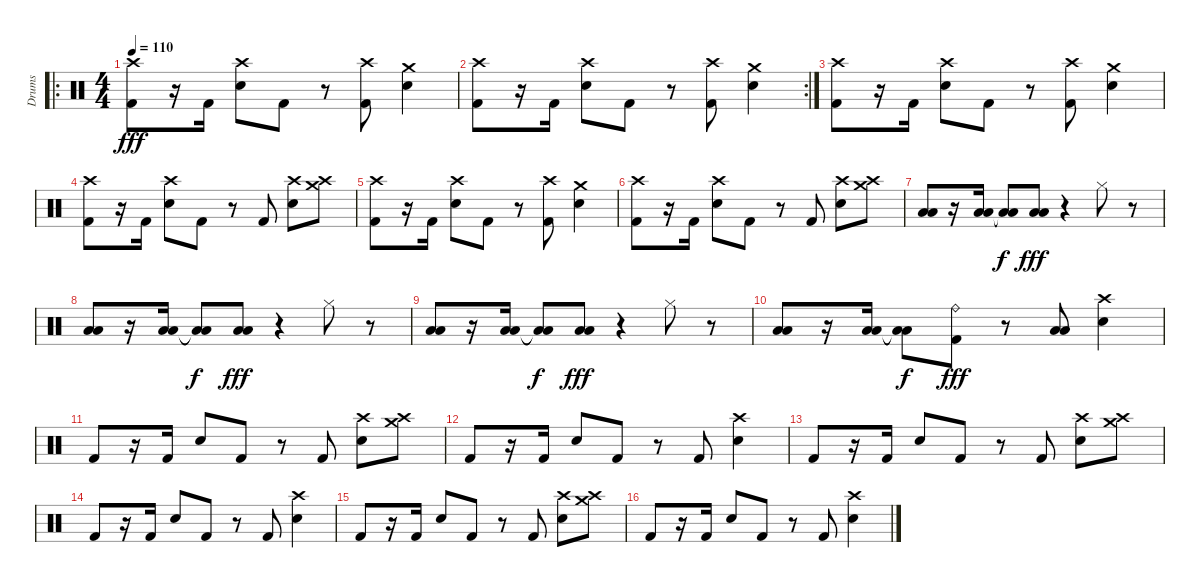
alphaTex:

\track ("Drums" "Drums") {instrument percussion}
\staff {score}
\articulation defaults
\ro
\ts (4 4)
\tempo 110
\clef neutral
\ks c
("Crash high (hit)" "Kick (hit) 2").8{dy fff} r.16 "Kick (hit) 2".16 ("Crash high (hit)" "Electric Snare (hit)").8 "Kick (hit) 2".8 r.8 ("Crash high (hit)" "Kick (hit) 2").8 ("Crash medium (hit)" "Electric Snare (hit)").4 |
\rc 2
("Crash high (hit)" "Kick (hit) 2").8 r.16 "Kick (hit) 2".16 ("Crash high (hit)" "Electric Snare (hit)").8 "Kick (hit) 2".8 r.8 ("Crash high (hit)" "Kick (hit) 2").8 ("Crash medium (hit)" "Electric Snare (hit)").4 |
("Crash high (hit)" "Kick (hit) 2").8 r.16 "Kick (hit) 2".16 ("Crash high (hit)" "Electric Snare (hit)").8 "Kick (hit) 2".8 r.8 ("Crash high (hit)" "Kick (hit) 2").8 ("Crash medium (hit)" "Electric Snare (hit)").4 |
("Crash high (hit)" "Kick (hit) 2").8 r.16 "Kick (hit) 2".16 ("Crash high (hit)" "Electric Snare (hit)").8 "Kick (hit) 2".8 r.8 "Kick (hit) 2".8 ("Crash high (hit)" "Electric Snare (hit)").8 ("Crash high (hit)" "Crash medium (hit)").8 |
("Crash high (hit)" "Kick (hit) 2").8 r.16 "Kick (hit) 2".16 ("Crash high (hit)" "Electric Snare (hit)").8 "Kick (hit) 2".8 r.8 ("Crash high (hit)" "Kick (hit) 2").8 ("Crash medium (hit)" "Electric Snare (hit)").4 |
("Crash high (hit)" "Kick (hit) 2").8 r.16 "Kick (hit) 2".16 ("Crash high (hit)" "Electric Snare (hit)").8 "Kick (hit) 2".8 r.8 "Kick (hit) 2".8 ("Crash high (hit)" "Electric Snare (hit)").8 ("Crash high (hit)" "Crash medium (hit)").8 |
("Low Tom (hit)" "Low Floor Tom (hit)").8 r.16 ("Low Tom (hit)" "Low Floor Tom (hit)").16 ("Low Tom (hit)"{t} "Low Floor Tom (hit)"{t}).8{dy f} ("Low Tom (hit)" "Low Floor Tom (hit)").8{dy fff} r.4 "Hi-Hat (closed)".8 r.8 |
("Low Tom (hit)" "Low Floor Tom (hit)").8 r.16 ("Low Tom (hit)" "Low Floor Tom (hit)").16 ("Low Tom (hit)"{t} "Low Floor Tom (hit)"{t}).8{dy f} ("Low Tom (hit)" "Low Floor Tom (hit)").8{dy fff} r.4 "Hi-Hat (closed)".8 r.8 |
("Low Tom (hit)" "Low Floor Tom (hit)").8 r.16 ("Low Tom (hit)" "Low Floor Tom (hit)").16 ("Low Tom (hit)"{t} "Low Floor Tom (hit)"{t}).8{dy f} ("Low Tom (hit)" "Low Floor Tom (hit)").8{dy fff} r.4 "Hi-Hat (closed)".8 r.8 |
("Low Tom (hit)" "Low Floor Tom (hit)").8 r.16 ("Low Tom (hit)" "Low Floor Tom (hit)").16 ("Low Tom (hit)"{t} "Low Floor Tom (hit)"{t}).8{dy f} ("Ride (bell)" "Kick (hit) 2").8{dy fff} r.8 ("Low Tom (hit)" "Low Floor Tom (hit)").8 ("Crash high (hit)" "Electric Snare (hit)").4 |
"Kick (hit) 2".8 r.16 "Kick (hit) 2".16 "Electric Snare (hit)".8 "Kick (hit) 2".8 r.8 "Kick (hit) 2".8 ("Crash high (hit)" "Electric Snare (hit)").8 ("Crash high (hit)" "Crash medium (hit)").8 |
"Kick (hit) 2".8 r.16 "Kick (hit) 2".16 "Electric Snare (hit)".8 "Kick (hit) 2".8 r.8 "Kick (hit) 2".8 ("Crash high (hit)" "Electric Snare (hit)").4 |
"Kick (hit) 2".8 r.16 "Kick (hit) 2".16 "Electric Snare (hit)".8 "Kick (hit) 2".8 r.8 "Kick (hit) 2".8 ("Crash high (hit)" "Electric Snare (hit)").8 ("Crash high (hit)" "Crash medium (hit)").8 |
"Kick (hit) 2".8 r.16 "Kick (hit) 2".16 "Electric Snare (hit)".8 "Kick (hit) 2".8 r.8 "Kick (hit) 2".8 ("Crash high (hit)" "Electric Snare (hit)").4 |
"Kick (hit) 2".8 r.16 "Kick (hit) 2".16 "Electric Snare (hit)".8 "Kick (hit) 2".8 r.8 "Kick (hit) 2".8 ("Crash high (hit)" "Electric Snare (hit)").8 ("Crash high (hit)" "Crash medium (hit)").8 |
"Kick (hit) 2".8 r.16 "Kick (hit) 2".16 "Electric Snare (hit)".8 "Kick (hit) 2".8 r.8 "Kick (hit) 2".8 ("Crash high (hit)" "Electric Snare (hit)").4
